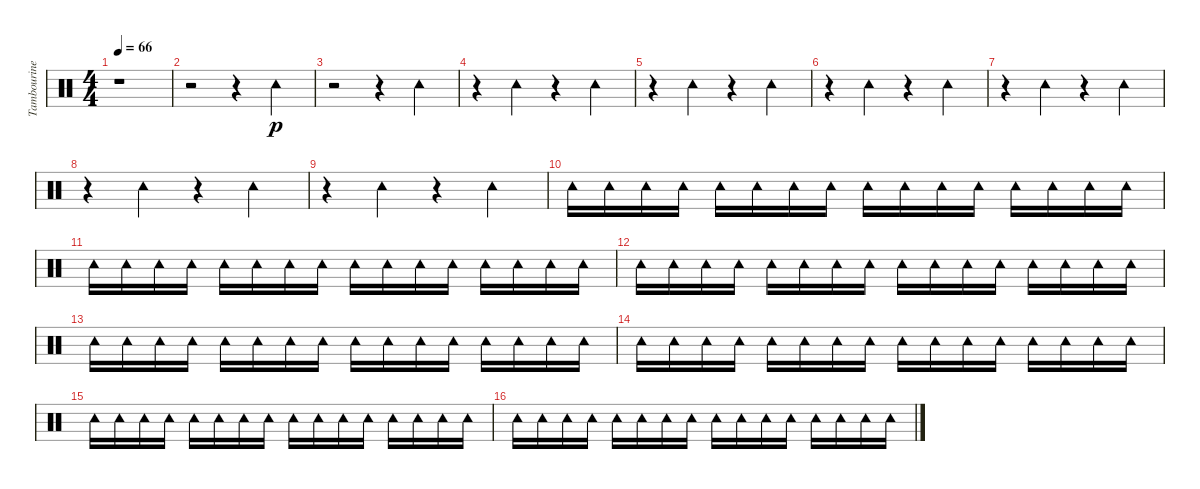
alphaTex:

\track ("Tambourine" "Tambourine") {instrument percussion}
\staff {score}
\articulation defaults
\ts (4 4)
\tempo 66
\clef neutral
\ks c
r.1{dy p} |
r.2 r.4 "Tambourine (hit)".4 |
r.2 r.4 "Tambourine (hit)".4 |
r.4 "Tambourine (hit)".4 r.4 "Tambourine (hit)".4 |
r.4 "Tambourine (hit)".4 r.4 "Tambourine (hit)".4 |
r.4 "Tambourine (hit)".4 r.4 "Tambourine (hit)".4 |
r.4 "Tambourine (hit)".4 r.4 "Tambourine (hit)".4 |
r.4 "Tambourine (hit)".4 r.4 "Tambourine (hit)".4 |
r.4 "Tambourine (hit)".4 r.4 "Tambourine (hit)".4 |
"Tambourine (hit)".16 "Tambourine (hit)".16 "Tambourine (hit)".16 "Tambourine (hit)".16 "Tambourine (hit)".16 "Tambourine (hit)".16 "Tambourine (hit)".16 "Tambourine (hit)".16 "Tambourine (hit)".16 "Tambourine (hit)".16 "Tambourine (hit)".16 "Tambourine (hit)".16 "Tambourine (hit)".16 "Tambourine (hit)".16 "Tambourine (hit)".16 "Tambourine (hit)".16 |
"Tambourine (hit)".16 "Tambourine (hit)".16 "Tambourine (hit)".16 "Tambourine (hit)".16 "Tambourine (hit)".16 "Tambourine (hit)".16 "Tambourine (hit)".16 "Tambourine (hit)".16 "Tambourine (hit)".16 "Tambourine (hit)".16 "Tambourine (hit)".16 "Tambourine (hit)".16 "Tambourine (hit)".16 "Tambourine (hit)".16 "Tambourine (hit)".16 "Tambourine (hit)".16 |
"Tambourine (hit)".16 "Tambourine (hit)".16 "Tambourine (hit)".16 "Tambourine (hit)".16 "Tambourine (hit)".16 "Tambourine (hit)".16 "Tambourine (hit)".16 "Tambourine (hit)".16 "Tambourine (hit)".16 "Tambourine (hit)".16 "Tambourine (hit)".16 "Tambourine (hit)".16 "Tambourine (hit)".16 "Tambourine (hit)".16 "Tambourine (hit)".16 "Tambourine (hit)".16 |
"Tambourine (hit)".16 "Tambourine (hit)".16 "Tambourine (hit)".16 "Tambourine (hit)".16 "Tambourine (hit)".16 "Tambourine (hit)".16 "Tambourine (hit)".16 "Tambourine (hit)".16 "Tambourine (hit)".16 "Tambourine (hit)".16 "Tambourine (hit)".16 "Tambourine (hit)".16 "Tambourine (hit)".16 "Tambourine (hit)".16 "Tambourine (hit)".16 "Tambourine (hit)".16 |
"Tambourine (hit)".16 "Tambourine (hit)".16 "Tambourine (hit)".16 "Tambourine (hit)".16 "Tambourine (hit)".16 "Tambourine (hit)".16 "Tambourine (hit)".16 "Tambourine (hit)".16 "Tambourine (hit)".16 "Tambourine (hit)".16 "Tambourine (hit)".16 "Tambourine (hit)".16 "Tambourine (hit)".16 "Tambourine (hit)".16 "Tambourine (hit)".16 "Tambourine (hit)".16 |
"Tambourine (hit)".16 "Tambourine (hit)".16 "Tambourine (hit)".16 "Tambourine (hit)".16 "Tambourine (hit)".16 "Tambourine (hit)".16 "Tambourine (hit)".16 "Tambourine (hit)".16 "Tambourine (hit)".16 "Tambourine (hit)".16 "Tambourine (hit)".16 "Tambourine (hit)".16 "Tambourine (hit)".16 "Tambourine (hit)".16 "Tambourine (hit)".16 "Tambourine (hit)".16 |
"Tambourine (hit)".16 "Tambourine (hit)".16 "Tambourine (hit)".16 "Tambourine (hit)".16 "Tambourine (hit)".16 "Tambourine (hit)".16 "Tambourine (hit)".16 "Tambourine (hit)".16 "Tambourine (hit)".16 "Tambourine (hit)".16 "Tambourine (hit)".16 "Tambourine (hit)".16 "Tambourine (hit)".16 "Tambourine (hit)".16 "Tambourine (hit)".16 "Tambourine (hit)".16
